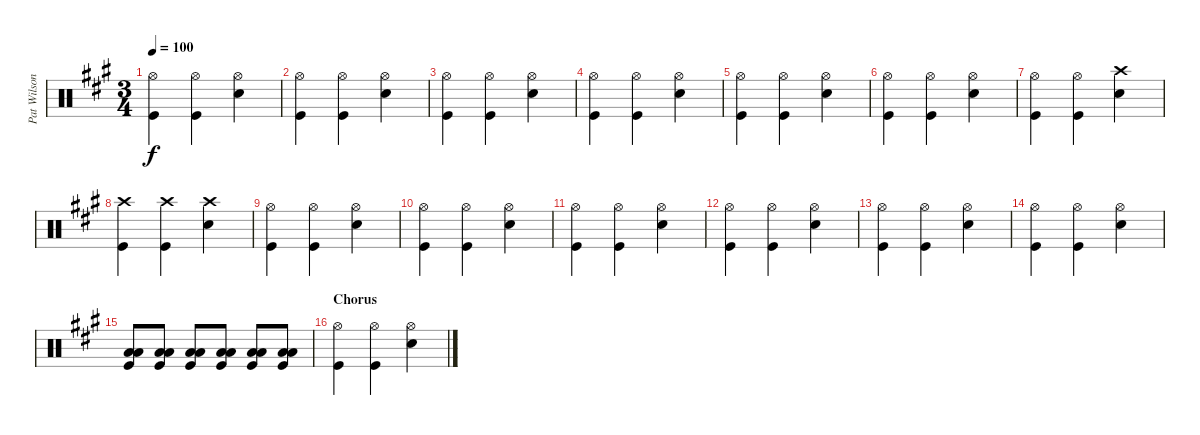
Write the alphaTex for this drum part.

\track ("Pat Wilson" "Pat Wilson") {instrument percussion}
\staff {score}
\articulation defaults
\ts (3 4)
\tempo 100
\clef neutral
\ks a
("Hi-Hat (open)" "Kick (hit)").4{dy f} ("Hi-Hat (open)" "Kick (hit)").4 ("Hi-Hat (open)" "Snare (hit) 2").4 |
("Hi-Hat (open)" "Kick (hit)").4 ("Hi-Hat (open)" "Kick (hit)").4 ("Hi-Hat (open)" "Snare (hit) 2").4 |
("Hi-Hat (open)" "Kick (hit)").4 ("Hi-Hat (open)" "Kick (hit)").4 ("Hi-Hat (open)" "Snare (hit) 2").4 |
("Hi-Hat (open)" "Kick (hit)").4 ("Hi-Hat (open)" "Kick (hit)").4 ("Hi-Hat (open)" "Snare (hit) 2").4 |
("Hi-Hat (open)" "Kick (hit)").4 ("Hi-Hat (open)" "Kick (hit)").4 ("Hi-Hat (open)" "Snare (hit) 2").4 |
("Hi-Hat (open)" "Kick (hit)").4 ("Hi-Hat (open)" "Kick (hit)").4 ("Hi-Hat (open)" "Snare (hit) 2").4 |
("Hi-Hat (open)" "Kick (hit)").4 ("Hi-Hat (open)" "Kick (hit)").4 ("Crash high (hit)" "Snare (hit) 2").4 |
("Crash high (hit)" "Kick (hit)").4 ("Crash high (hit)" "Kick (hit)").4 ("Crash high (hit)" "Snare (hit) 2").4 |
("Hi-Hat (open)" "Kick (hit)").4 ("Hi-Hat (open)" "Kick (hit)").4 ("Hi-Hat (open)" "Snare (hit) 2").4 |
("Hi-Hat (open)" "Kick (hit)").4 ("Hi-Hat (open)" "Kick (hit)").4 ("Hi-Hat (open)" "Snare (hit) 2").4 |
("Hi-Hat (open)" "Kick (hit)").4 ("Hi-Hat (open)" "Kick (hit)").4 ("Hi-Hat (open)" "Snare (hit) 2").4 |
("Hi-Hat (open)" "Kick (hit)").4 ("Hi-Hat (open)" "Kick (hit)").4 ("Hi-Hat (open)" "Snare (hit) 2").4 |
("Hi-Hat (open)" "Kick (hit)").4 ("Hi-Hat (open)" "Kick (hit)").4 ("Hi-Hat (open)" "Snare (hit) 2").4 |
("Hi-Hat (open)" "Kick (hit)").4 ("Hi-Hat (open)" "Kick (hit)").4 ("Hi-Hat (open)" "Snare (hit) 2").4 |
("Kick (hit)" "Low Floor Tom (hit)" "Low Tom (hit)").8 ("Kick (hit)" "Low Floor Tom (hit)" "Low Tom (hit)").8 ("Kick (hit)" "Low Floor Tom (hit)" "Low Tom (hit)").8 ("Kick (hit)" "Low Floor Tom (hit)" "Low Tom (hit)").8 ("Kick (hit)" "Low Floor Tom (hit)" "Low Tom (hit)").8 ("Kick (hit)" "Low Floor Tom (hit)" "Low Tom (hit)").8 |
\section ("" "Chorus")
("Hi-Hat (open)" "Kick (hit)").4 ("Hi-Hat (open)" "Kick (hit)").4 ("Hi-Hat (open)" "Snare (hit) 2").4
